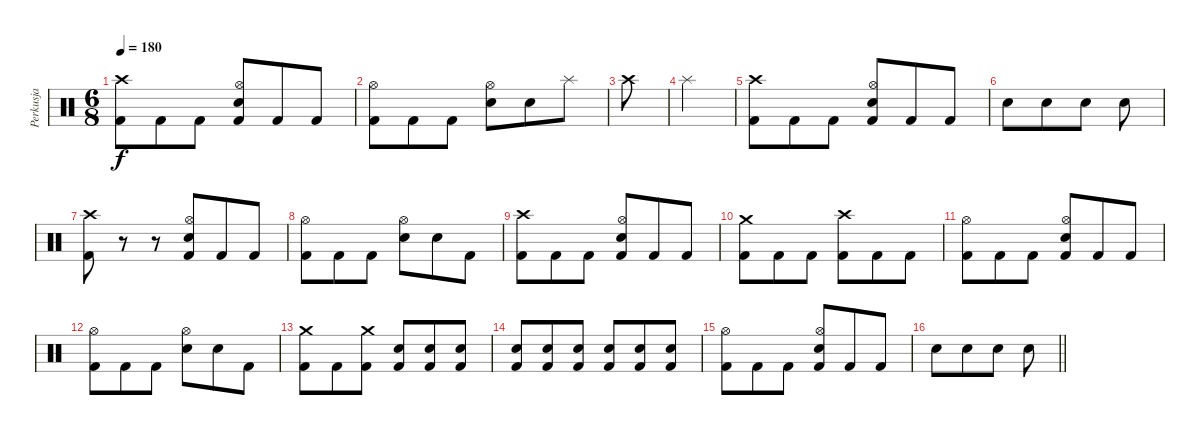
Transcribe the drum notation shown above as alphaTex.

\track ("Perkusja" "Perkusja") {instrument percussion}
\staff {score}
\articulation defaults
\ts (6 8)
\tempo 180
\clef neutral
\ks c
("Crash high (hit)" "Kick (hit) 2").8{dy f} "Kick (hit) 2".8 "Kick (hit) 2".8 ("Hi-Hat (open)" "Snare (hit) 2" "Kick (hit) 2").8 "Kick (hit) 2".8 "Kick (hit) 2".8 |
("Hi-Hat (open)" "Kick (hit) 2").8 "Kick (hit) 2".8 "Kick (hit) 2".8 ("Hi-Hat (open)" "Snare (hit) 2").8 "Snare (hit) 2".8 "Splash (hit)".8 |
"Crash high (hit)".8 |
"Splash (hit)".4 |
("Crash high (hit)" "Kick (hit) 2").8 "Kick (hit) 2".8 "Kick (hit) 2".8 ("Hi-Hat (open)" "Snare (hit) 2" "Kick (hit) 2").8 "Kick (hit) 2".8 "Kick (hit) 2".8 |
"Snare (hit) 2".8 "Snare (hit) 2".8 "Snare (hit) 2".8 "Snare (hit) 2".8 |
("Crash high (hit)" "Kick (hit) 2").8 r.8 r.8 ("Hi-Hat (open)" "Snare (hit) 2" "Kick (hit) 2").8 "Kick (hit) 2".8 "Kick (hit) 2".8 |
("Hi-Hat (open)" "Kick (hit) 2").8 "Kick (hit) 2".8 "Kick (hit) 2".8 ("Hi-Hat (open)" "Snare (hit) 2").8 "Snare (hit) 2".8 "Kick (hit) 2".8 |
("Crash high (hit)" "Kick (hit) 2").8 "Kick (hit) 2".8 "Kick (hit) 2".8 ("Hi-Hat (open)" "Snare (hit) 2" "Kick (hit) 2").8 "Kick (hit) 2".8 "Kick (hit) 2".8 |
("Crash medium (hit)" "Kick (hit) 2").8 "Kick (hit) 2".8 "Kick (hit) 2".8 ("Crash high (hit)" "Kick (hit) 2").8 "Kick (hit) 2".8 "Kick (hit) 2".8 |
("Hi-Hat (open)" "Kick (hit) 2").8 "Kick (hit) 2".8 "Kick (hit) 2".8 ("Hi-Hat (open)" "Snare (hit) 2" "Kick (hit) 2").8 "Kick (hit) 2".8 "Kick (hit) 2".8 |
("Hi-Hat (open)" "Kick (hit) 2").8 "Kick (hit) 2".8 "Kick (hit) 2".8 ("Hi-Hat (open)" "Snare (hit) 2").8 "Snare (hit) 2".8 "Kick (hit) 2".8 |
("Crash medium (hit)" "Kick (hit) 2").8 "Kick (hit) 2".8 ("Crash medium (hit)" "Kick (hit) 2").8 ("Snare (hit) 2" "Kick (hit) 2").8 ("Snare (hit) 2" "Kick (hit) 2").8 ("Snare (hit) 2" "Kick (hit) 2").8 |
("Snare (hit) 2" "Kick (hit) 2").8 ("Snare (hit) 2" "Kick (hit) 2").8 ("Snare (hit) 2" "Kick (hit) 2").8 ("Snare (hit) 2" "Kick (hit) 2").8 ("Snare (hit) 2" "Kick (hit) 2").8 ("Snare (hit) 2" "Kick (hit) 2").8 |
("Hi-Hat (open)" "Kick (hit) 2").8 "Kick (hit) 2".8 "Kick (hit) 2".8 ("Hi-Hat (open)" "Snare (hit) 2" "Kick (hit) 2").8 "Kick (hit) 2".8 "Kick (hit) 2".8 |
\barLineRight lightlight "Snare (hit) 2".8 "Snare (hit) 2".8 "Snare (hit) 2".8 "Snare (hit) 2".8
